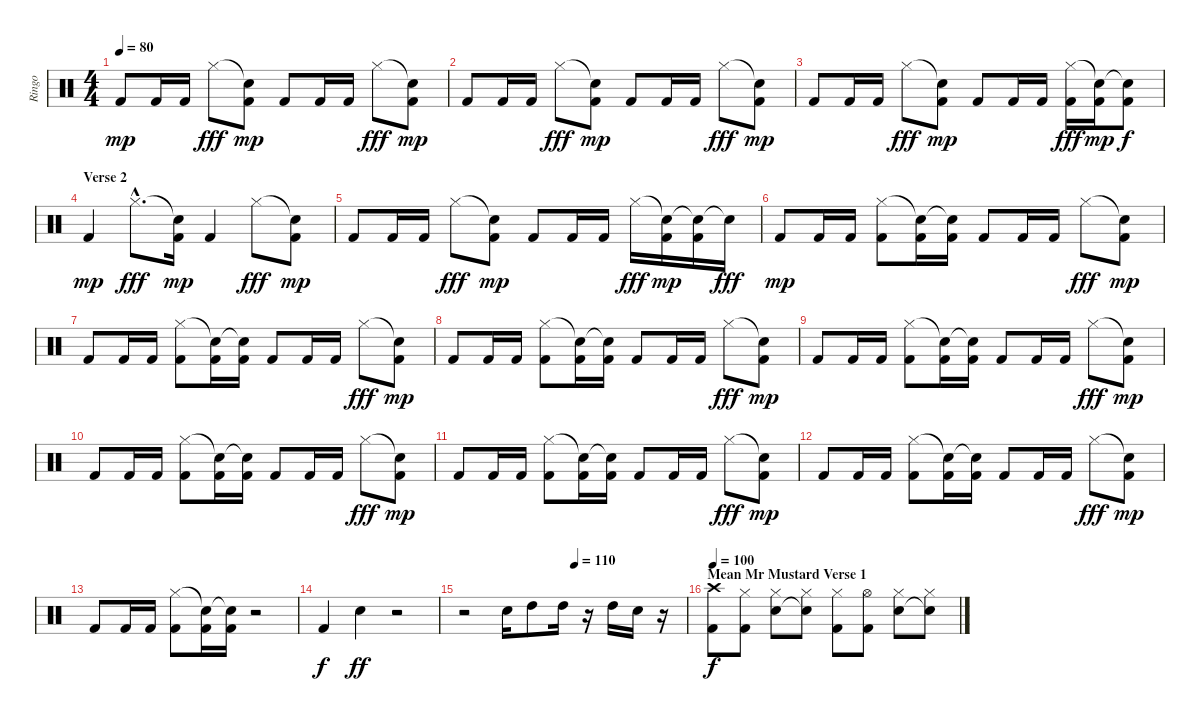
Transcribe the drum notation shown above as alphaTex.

\track ("Ringo" "Ringo") {instrument percussion}
\staff {score}
\articulation defaults
\ts (4 4)
\tempo 80
\clef neutral
\ks c "Kick (hit) 2".8{dy mp} "Kick (hit) 2".16 "Kick (hit) 2".16 "Hi-Hat (closed)".8{dy fff}
("Snare (hit)"{t} "Kick (hit) 2").8{dy mp} "Kick (hit) 2".8 "Kick (hit) 2".16 "Kick (hit) 2".16 "Hi-Hat (closed)".8{dy fff} ("Snare (hit)"{t} "Kick (hit) 2").8{dy mp} |
"Kick (hit) 2".8 "Kick (hit) 2".16 "Kick (hit) 2".16 "Hi-Hat (closed)".8{dy fff} ("Snare (hit)"{t} "Kick (hit) 2").8{dy mp} "Kick (hit) 2".8 "Kick (hit) 2".16 "Kick (hit) 2".16 "Hi-Hat (closed)".8{dy fff} ("Snare (hit)"{t} "Kick (hit) 2").8{dy mp} |
"Kick (hit) 2".8 "Kick (hit) 2".16 "Kick (hit) 2".16 "Hi-Hat (closed)".8{dy fff} ("Snare (hit)"{t} "Kick (hit) 2").8{dy mp} "Kick (hit) 2".8 "Kick (hit) 2".16 "Kick (hit) 2".16 ("Hi-Hat (closed)" "Kick (hit) 2").16{dy fff} ("Snare (hit)"{t} "Kick (hit) 2").16{dy mp} ("Snare (hit)"{t} "Kick (hit) 2").8{dy f} |
\section ("" "Verse 2")
"Kick (hit) 2".4{dy mp} "Hi-Hat (closed)"{hac}.8{d dy fff} ("Snare (hit)"{t} "Kick (hit) 2").16{dy mp} "Kick (hit) 2".4 "Hi-Hat (closed)".8{dy fff} ("Snare (hit)"{t} "Kick (hit) 2").8{dy mp} |
"Kick (hit) 2".8 "Kick (hit) 2".16 "Kick (hit) 2".16 "Hi-Hat (closed)".8{dy fff} ("Snare (hit)"{t} "Kick (hit) 2").8{dy mp} "Kick (hit) 2".8 "Kick (hit) 2".16 "Kick (hit) 2".16 "Hi-Hat (closed)".16{dy fff} ("Snare (hit)"{t} "Kick (hit) 2").16{dy mp} ("Snare (hit)"{t} "Kick (hit) 2").16 "Snare (hit)"{t}.16{dy fff} |
"Kick (hit) 2".8{dy mp} "Kick (hit) 2".16 "Kick (hit) 2".16 ("Hi-Hat (closed)" "Kick (hit) 2").8 ("Snare (hit)"{t} "Kick (hit) 2").16 ("Snare (hit)"{t} "Kick (hit) 2").16 "Kick (hit) 2".8 "Kick (hit) 2".16 "Kick (hit) 2".16 "Hi-Hat (closed)".8{dy fff} ("Snare (hit)"{t} "Kick (hit) 2").8{dy mp} |
"Kick (hit) 2".8 "Kick (hit) 2".16 "Kick (hit) 2".16 ("Hi-Hat (closed)" "Kick (hit) 2").8 ("Snare (hit)"{t} "Kick (hit) 2").16 ("Snare (hit)"{t} "Kick (hit) 2").16 "Kick (hit) 2".8 "Kick (hit) 2".16 "Kick (hit) 2".16 "Hi-Hat (closed)".8{dy fff} ("Snare (hit)"{t} "Kick (hit) 2").8{dy mp} |
"Kick (hit) 2".8 "Kick (hit) 2".16 "Kick (hit) 2".16 ("Hi-Hat (closed)" "Kick (hit) 2").8 ("Snare (hit)"{t} "Kick (hit) 2").16 ("Snare (hit)"{t} "Kick (hit) 2").16 "Kick (hit) 2".8 "Kick (hit) 2".16 "Kick (hit) 2".16 "Hi-Hat (closed)".8{dy fff} ("Snare (hit)"{t} "Kick (hit) 2").8{dy mp} |
"Kick (hit) 2".8 "Kick (hit) 2".16 "Kick (hit) 2".16 ("Hi-Hat (closed)" "Kick (hit) 2").8 ("Snare (hit)"{t} "Kick (hit) 2").16 ("Snare (hit)"{t} "Kick (hit) 2").16 "Kick (hit) 2".8 "Kick (hit) 2".16 "Kick (hit) 2".16 "Hi-Hat (closed)".8{dy fff} ("Snare (hit)"{t} "Kick (hit) 2").8{dy mp} |
"Kick (hit) 2".8 "Kick (hit) 2".16 "Kick (hit) 2".16 ("Hi-Hat (closed)" "Kick (hit) 2").8 ("Snare (hit)"{t} "Kick (hit) 2").16 ("Snare (hit)"{t} "Kick (hit) 2").16 "Kick (hit) 2".8 "Kick (hit) 2".16 "Kick (hit) 2".16 "Hi-Hat (closed)".8{dy fff} ("Snare (hit)"{t} "Kick (hit) 2").8{dy mp} |
"Kick (hit) 2".8 "Kick (hit) 2".16 "Kick (hit) 2".16 ("Hi-Hat (closed)" "Kick (hit) 2").8 ("Snare (hit)"{t} "Kick (hit) 2").16 ("Snare (hit)"{t} "Kick (hit) 2").16 "Kick (hit) 2".8 "Kick (hit) 2".16 "Kick (hit) 2".16 "Hi-Hat (closed)".8{dy fff} ("Snare (hit)"{t} "Kick (hit) 2").8{dy mp} |
"Kick (hit) 2".8 "Kick (hit) 2".16 "Kick (hit) 2".16 ("Hi-Hat (closed)" "Kick (hit) 2").8 ("Snare (hit)"{t} "Kick (hit) 2").16 ("Snare (hit)"{t} "Kick (hit) 2").16 "Kick (hit) 2".8 "Kick (hit) 2".16 "Kick (hit) 2".16 "Hi-Hat (closed)".8{dy fff} ("Snare (hit)"{t} "Kick (hit) 2").8{dy mp} |
"Kick (hit) 2".8 "Kick (hit) 2".16 "Kick (hit) 2".16 ("Hi-Hat (closed)" "Kick (hit) 2").8 ("Snare (hit)"{t} "Kick (hit) 2").16 ("Snare (hit)"{t} "Kick (hit) 2").16 r.2 |
"Kick (hit) 2".4{dy f} "Snare (hit) 2".4{dy ff} r.2 |
\tempo (110 0.5)
r.2 "Snare (hit) 2".16 "High Tom (hit)".8 "High Tom (hit)".16 r.16 "High Tom (hit)".16 "Snare (hit) 2".16 r.16 |
\section ("" "Mean Mr Mustard Verse 1")
\tempo 100
("Crash high (hit)" "Kick (hit) 2").8{dy f volume 13} ("Hi-Hat (closed)" "Kick (hit) 2").8 ("Hi-Hat (closed)" "Snare (hit) 2").8 ("Hi-Hat (closed)" "Snare (hit)"{t}).8 ("Hi-Hat (closed)" "Kick (hit) 2").8 ("Hi-Hat (open)" "Kick (hit) 2").8 ("Hi-Hat (closed)" "Snare (hit) 2").8 ("Hi-Hat (closed)" "Snare (hit)"{t}).8
